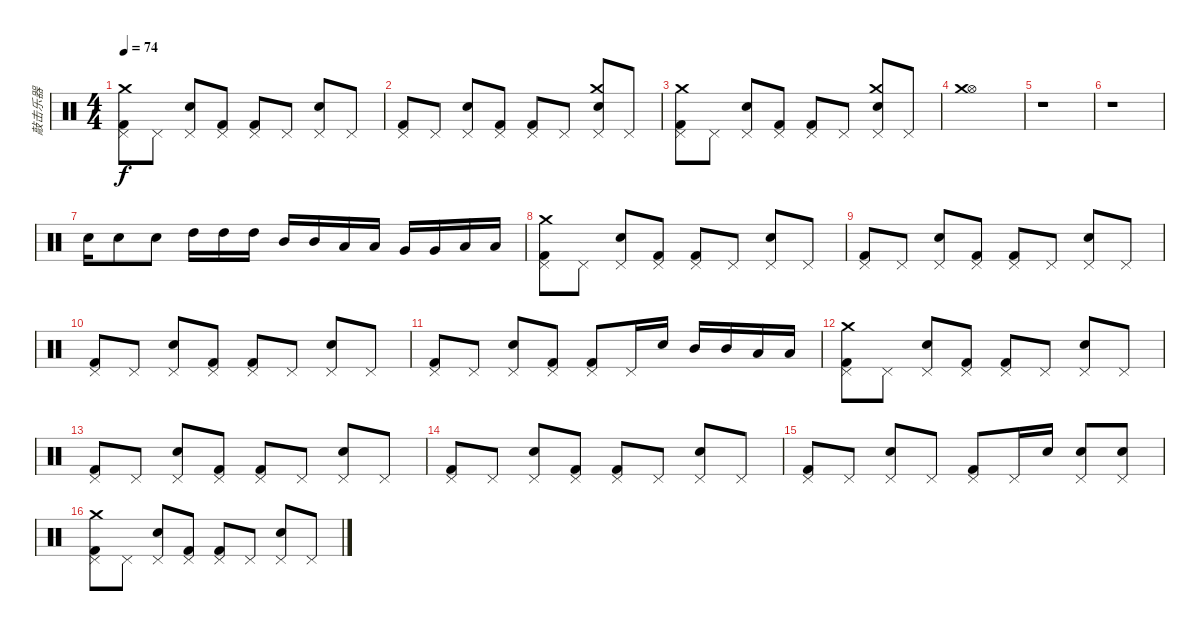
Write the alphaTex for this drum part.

\track ("敲击乐器" "敲击乐器") {instrument percussion}
\staff {score}
\articulation defaults
\ts (4 4)
\tempo 74
\clef neutral
\ks c
("Pedal Hi-Hat (hit)" "Kick (hit) 2" "Crash medium (hit)").8{dy f} "Pedal Hi-Hat (hit)".8 ("Pedal Hi-Hat (hit)" "Electric Snare (hit)").8 ("Pedal Hi-Hat (hit)" "Kick (hit) 2").8 ("Pedal Hi-Hat (hit)" "Kick (hit) 2").8 "Pedal Hi-Hat (hit)".8 ("Pedal Hi-Hat (hit)" "Electric Snare (hit)").8 "Pedal Hi-Hat (hit)".8 |
("Pedal Hi-Hat (hit)" "Kick (hit) 2").8 "Pedal Hi-Hat (hit)".8 ("Pedal Hi-Hat (hit)" "Electric Snare (hit)").8 ("Pedal Hi-Hat (hit)" "Kick (hit) 2").8 ("Pedal Hi-Hat (hit)" "Kick (hit) 2").8 "Pedal Hi-Hat (hit)".8 ("Pedal Hi-Hat (hit)" "Electric Snare (hit)" "Crash medium (hit)").8 "Pedal Hi-Hat (hit)".8 |
("Pedal Hi-Hat (hit)" "Kick (hit) 2" "Crash medium (hit)").8 "Pedal Hi-Hat (hit)".8 ("Pedal Hi-Hat (hit)" "Electric Snare (hit)").8 ("Pedal Hi-Hat (hit)" "Kick (hit) 2").8 ("Pedal Hi-Hat (hit)" "Kick (hit) 2").8 "Pedal Hi-Hat (hit)".8 ("Pedal Hi-Hat (hit)" "Electric Snare (hit)" "Crash medium (hit)").8 "Pedal Hi-Hat (hit)".8 |
("Hi-Hat (open)" "Crash medium (hit)").1 |
r.1 |
r.1 |
"Electric Snare (hit)".16 "Electric Snare (hit)".8 "Electric Snare (hit)".8 "High Tom (hit)".16 "High Tom (hit)".16 "High Tom (hit)".16 "Mid Tom (hit)".16 "Mid Tom (hit)".16 "Low Tom (hit)".16 "Low Tom (hit)".16 "Very Low Tom (hit)".16 "Very Low Tom (hit)".16 "Low Floor Tom (hit)".16 "Low Floor Tom (hit)".16 |
("Pedal Hi-Hat (hit)" "Kick (hit) 2" "Crash medium (hit)").8 "Pedal Hi-Hat (hit)".8 ("Pedal Hi-Hat (hit)" "Electric Snare (hit)").8 ("Pedal Hi-Hat (hit)" "Kick (hit) 2").8 ("Pedal Hi-Hat (hit)" "Kick (hit) 2").8 "Pedal Hi-Hat (hit)".8 ("Pedal Hi-Hat (hit)" "Electric Snare (hit)").8 "Pedal Hi-Hat (hit)".8 |
("Pedal Hi-Hat (hit)" "Kick (hit) 2").8 "Pedal Hi-Hat (hit)".8 ("Pedal Hi-Hat (hit)" "Electric Snare (hit)").8 ("Pedal Hi-Hat (hit)" "Kick (hit) 2").8 ("Pedal Hi-Hat (hit)" "Kick (hit) 2").8 "Pedal Hi-Hat (hit)".8 ("Pedal Hi-Hat (hit)" "Electric Snare (hit)").8 "Pedal Hi-Hat (hit)".8 |
("Pedal Hi-Hat (hit)" "Kick (hit) 2").8 "Pedal Hi-Hat (hit)".8 ("Pedal Hi-Hat (hit)" "Electric Snare (hit)").8 ("Pedal Hi-Hat (hit)" "Kick (hit) 2").8 ("Pedal Hi-Hat (hit)" "Kick (hit) 2").8 "Pedal Hi-Hat (hit)".8 ("Pedal Hi-Hat (hit)" "Electric Snare (hit)").8 "Pedal Hi-Hat (hit)".8 |
("Pedal Hi-Hat (hit)" "Kick (hit) 2").8 "Pedal Hi-Hat (hit)".8 ("Pedal Hi-Hat (hit)" "Electric Snare (hit)").8 ("Pedal Hi-Hat (hit)" "Kick (hit) 2").8 ("Pedal Hi-Hat (hit)" "Kick (hit) 2").8 "Pedal Hi-Hat (hit)".16 "Electric Snare (hit)".16 "Mid Tom (hit)".16 "Mid Tom (hit)".16 "Low Tom (hit)".16 "Low Tom (hit)".16 |
("Pedal Hi-Hat (hit)" "Kick (hit) 2" "Crash medium (hit)").8 "Pedal Hi-Hat (hit)".8 ("Pedal Hi-Hat (hit)" "Electric Snare (hit)").8 ("Pedal Hi-Hat (hit)" "Kick (hit) 2").8 ("Pedal Hi-Hat (hit)" "Kick (hit) 2").8 "Pedal Hi-Hat (hit)".8 ("Pedal Hi-Hat (hit)" "Electric Snare (hit)").8 "Pedal Hi-Hat (hit)".8 |
("Pedal Hi-Hat (hit)" "Kick (hit) 2").8 "Pedal Hi-Hat (hit)".8 ("Pedal Hi-Hat (hit)" "Electric Snare (hit)").8 ("Pedal Hi-Hat (hit)" "Kick (hit) 2").8 ("Pedal Hi-Hat (hit)" "Kick (hit) 2").8 "Pedal Hi-Hat (hit)".8 ("Pedal Hi-Hat (hit)" "Electric Snare (hit)").8 "Pedal Hi-Hat (hit)".8 |
("Pedal Hi-Hat (hit)" "Kick (hit) 2").8 "Pedal Hi-Hat (hit)".8 ("Pedal Hi-Hat (hit)" "Electric Snare (hit)").8 ("Pedal Hi-Hat (hit)" "Kick (hit) 2").8 ("Pedal Hi-Hat (hit)" "Kick (hit) 2").8 "Pedal Hi-Hat (hit)".8 ("Pedal Hi-Hat (hit)" "Electric Snare (hit)").8 "Pedal Hi-Hat (hit)".8 |
("Pedal Hi-Hat (hit)" "Kick (hit) 2").8 "Pedal Hi-Hat (hit)".8 ("Pedal Hi-Hat (hit)" "Electric Snare (hit)").8 "Pedal Hi-Hat (hit)".8 ("Pedal Hi-Hat (hit)" "Kick (hit) 2").8 "Pedal Hi-Hat (hit)".16 "Electric Snare (hit)".16 ("Pedal Hi-Hat (hit)" "Electric Snare (hit)").8 ("Pedal Hi-Hat (hit)" "Electric Snare (hit)").8 |
("Pedal Hi-Hat (hit)" "Kick (hit) 2" "Crash medium (hit)").8 "Pedal Hi-Hat (hit)".8 ("Pedal Hi-Hat (hit)" "Electric Snare (hit)").8 ("Pedal Hi-Hat (hit)" "Kick (hit) 2").8 ("Pedal Hi-Hat (hit)" "Kick (hit) 2").8 "Pedal Hi-Hat (hit)".8 ("Pedal Hi-Hat (hit)" "Electric Snare (hit)").8 "Pedal Hi-Hat (hit)".8
